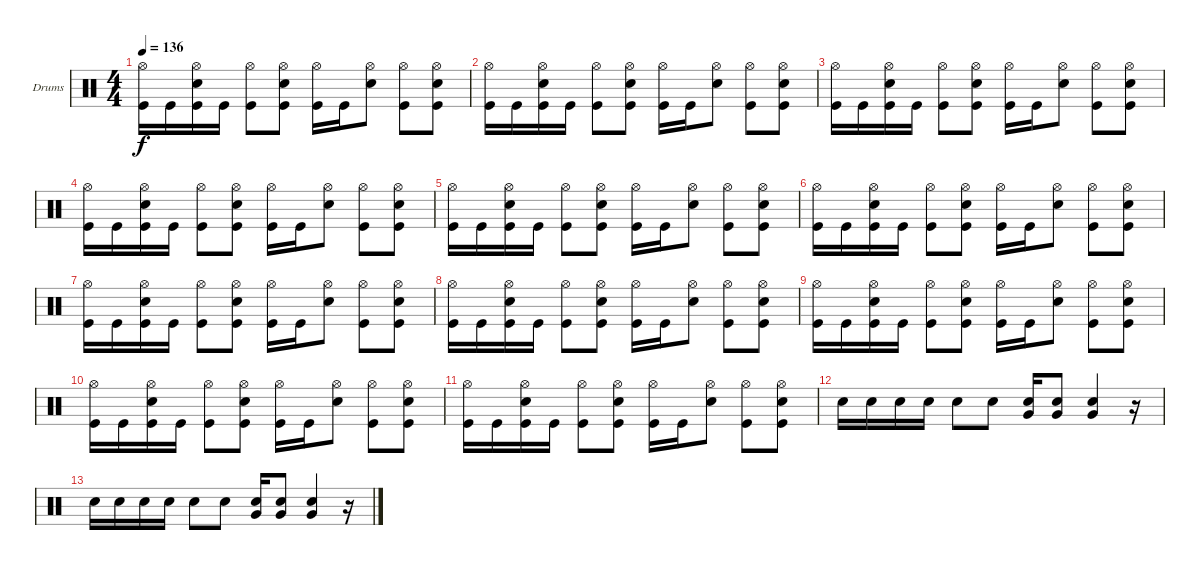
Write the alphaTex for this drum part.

\defaultSystemsLayout 4
\bracketExtendMode groupsimilarinstruments
\firstSystemTrackNameOrientation horizontal
\otherSystemsTrackNameOrientation horizontal
\track ("Lars Ulrich (Drums)" "Drums") {instrument percussion}
\staff {score}
\articulation defaults
\ts (4 4)
\tempo 136
\clef neutral
\ks c
("Hi-Hat (open)" "Kick (hit)").16{dy f} "Kick (hit)".16 ("Hi-Hat (open)" "Snare (hit) 2" "Kick (hit)").16 "Kick (hit)".16 ("Hi-Hat (open)" "Kick (hit)").8 ("Hi-Hat (open)" "Snare (hit) 2" "Kick (hit)").8 ("Hi-Hat (open)" "Kick (hit)").16 "Kick (hit)".16 ("Hi-Hat (open)" "Snare (hit) 2").8 ("Hi-Hat (open)" "Kick (hit)").8 ("Hi-Hat (open)" "Snare (hit) 2" "Kick (hit)").8 |
("Hi-Hat (open)" "Kick (hit)").16 "Kick (hit)".16 ("Hi-Hat (open)" "Snare (hit) 2" "Kick (hit)").16 "Kick (hit)".16 ("Hi-Hat (open)" "Kick (hit)").8 ("Hi-Hat (open)" "Snare (hit) 2" "Kick (hit)").8 ("Hi-Hat (open)" "Kick (hit)").16 "Kick (hit)".16 ("Hi-Hat (open)" "Snare (hit) 2").8 ("Hi-Hat (open)" "Kick (hit)").8 ("Hi-Hat (open)" "Snare (hit) 2" "Kick (hit)").8 |
("Hi-Hat (open)" "Kick (hit)").16 "Kick (hit)".16 ("Hi-Hat (open)" "Snare (hit) 2" "Kick (hit)").16 "Kick (hit)".16 ("Hi-Hat (open)" "Kick (hit)").8 ("Hi-Hat (open)" "Snare (hit) 2" "Kick (hit)").8 ("Hi-Hat (open)" "Kick (hit)").16 "Kick (hit)".16 ("Hi-Hat (open)" "Snare (hit) 2").8 ("Hi-Hat (open)" "Kick (hit)").8 ("Hi-Hat (open)" "Snare (hit) 2" "Kick (hit)").8 |
("Hi-Hat (open)" "Kick (hit)").16 "Kick (hit)".16 ("Hi-Hat (open)" "Snare (hit) 2" "Kick (hit)").16 "Kick (hit)".16 ("Hi-Hat (open)" "Kick (hit)").8 ("Hi-Hat (open)" "Snare (hit) 2" "Kick (hit)").8 ("Hi-Hat (open)" "Kick (hit)").16 "Kick (hit)".16 ("Hi-Hat (open)" "Snare (hit) 2").8 ("Hi-Hat (open)" "Kick (hit)").8 ("Hi-Hat (open)" "Snare (hit) 2" "Kick (hit)").8 |
("Hi-Hat (open)" "Kick (hit)").16 "Kick (hit)".16 ("Hi-Hat (open)" "Snare (hit) 2" "Kick (hit)").16 "Kick (hit)".16 ("Hi-Hat (open)" "Kick (hit)").8 ("Hi-Hat (open)" "Snare (hit) 2" "Kick (hit)").8 ("Hi-Hat (open)" "Kick (hit)").16 "Kick (hit)".16 ("Hi-Hat (open)" "Snare (hit) 2").8 ("Hi-Hat (open)" "Kick (hit)").8 ("Hi-Hat (open)" "Snare (hit) 2" "Kick (hit)").8 |
("Hi-Hat (open)" "Kick (hit)").16 "Kick (hit)".16 ("Hi-Hat (open)" "Snare (hit) 2" "Kick (hit)").16 "Kick (hit)".16 ("Hi-Hat (open)" "Kick (hit)").8 ("Hi-Hat (open)" "Snare (hit) 2" "Kick (hit)").8 ("Hi-Hat (open)" "Kick (hit)").16 "Kick (hit)".16 ("Hi-Hat (open)" "Snare (hit) 2").8 ("Hi-Hat (open)" "Kick (hit)").8 ("Hi-Hat (open)" "Snare (hit) 2" "Kick (hit)").8 |
("Hi-Hat (open)" "Kick (hit)").16 "Kick (hit)".16 ("Hi-Hat (open)" "Snare (hit) 2" "Kick (hit)").16 "Kick (hit)".16 ("Hi-Hat (open)" "Kick (hit)").8 ("Hi-Hat (open)" "Snare (hit) 2" "Kick (hit)").8 ("Hi-Hat (open)" "Kick (hit)").16 "Kick (hit)".16 ("Hi-Hat (open)" "Snare (hit) 2").8 ("Hi-Hat (open)" "Kick (hit)").8 ("Hi-Hat (open)" "Snare (hit) 2" "Kick (hit)").8 |
("Hi-Hat (open)" "Kick (hit)").16 "Kick (hit)".16 ("Hi-Hat (open)" "Snare (hit) 2" "Kick (hit)").16 "Kick (hit)".16 ("Hi-Hat (open)" "Kick (hit)").8 ("Hi-Hat (open)" "Snare (hit) 2" "Kick (hit)").8 ("Hi-Hat (open)" "Kick (hit)").16 "Kick (hit)".16 ("Hi-Hat (open)" "Snare (hit) 2").8 ("Hi-Hat (open)" "Kick (hit)").8 ("Hi-Hat (open)" "Snare (hit) 2" "Kick (hit)").8 |
("Hi-Hat (open)" "Kick (hit)").16 "Kick (hit)".16 ("Hi-Hat (open)" "Snare (hit) 2" "Kick (hit)").16 "Kick (hit)".16 ("Hi-Hat (open)" "Kick (hit)").8 ("Hi-Hat (open)" "Snare (hit) 2" "Kick (hit)").8 ("Hi-Hat (open)" "Kick (hit)").16 "Kick (hit)".16 ("Hi-Hat (open)" "Snare (hit) 2").8 ("Hi-Hat (open)" "Kick (hit)").8 ("Hi-Hat (open)" "Snare (hit) 2" "Kick (hit)").8 |
("Hi-Hat (open)" "Kick (hit)").16 "Kick (hit)".16 ("Hi-Hat (open)" "Snare (hit) 2" "Kick (hit)").16 "Kick (hit)".16 ("Hi-Hat (open)" "Kick (hit)").8 ("Hi-Hat (open)" "Snare (hit) 2" "Kick (hit)").8 ("Hi-Hat (open)" "Kick (hit)").16 "Kick (hit)".16 ("Hi-Hat (open)" "Snare (hit) 2").8 ("Hi-Hat (open)" "Kick (hit)").8 ("Hi-Hat (open)" "Snare (hit) 2" "Kick (hit)").8 |
("Hi-Hat (open)" "Kick (hit)").16 "Kick (hit)".16 ("Hi-Hat (open)" "Snare (hit) 2" "Kick (hit)").16 "Kick (hit)".16 ("Hi-Hat (open)" "Kick (hit)").8 ("Hi-Hat (open)" "Snare (hit) 2" "Kick (hit)").8 ("Hi-Hat (open)" "Kick (hit)").16 "Kick (hit)".16 ("Hi-Hat (open)" "Snare (hit) 2").8 ("Hi-Hat (open)" "Kick (hit)").8 ("Hi-Hat (open)" "Snare (hit) 2" "Kick (hit)").8 |
"Snare (hit) 2".16 "Snare (hit) 2".16 "Snare (hit) 2".16 "Snare (hit) 2".16 "Snare (hit) 2".8 "Snare (hit) 2".8 ("Snare (hit) 2" "Very Low Tom (hit)").16 ("Snare (hit) 2" "Very Low Tom (hit)").8 ("Snare (hit) 2" "Very Low Tom (hit)").4 r.16 |
"Snare (hit) 2".16 "Snare (hit) 2".16 "Snare (hit) 2".16 "Snare (hit) 2".16 "Snare (hit) 2".8 "Snare (hit) 2".8 ("Snare (hit) 2" "Very Low Tom (hit)").16 ("Snare (hit) 2" "Very Low Tom (hit)").8 ("Snare (hit) 2" "Very Low Tom (hit)").4 r.16
